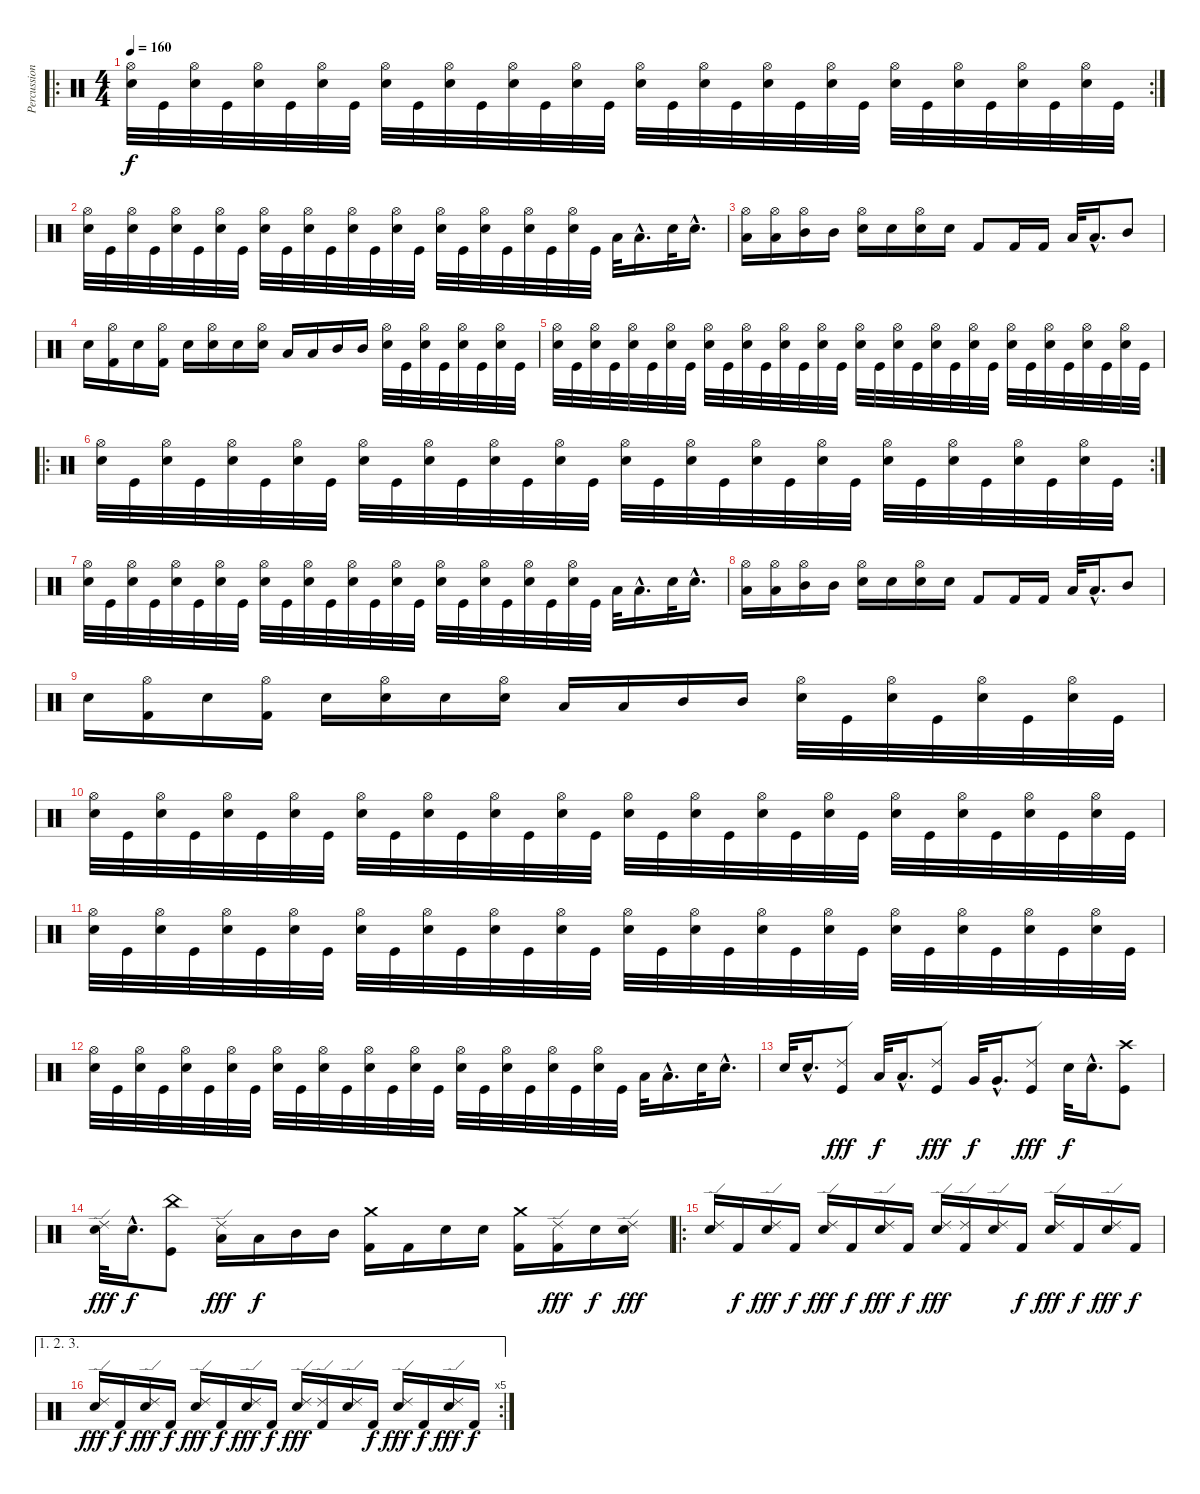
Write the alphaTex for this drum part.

\track ("Percussion" "Percussion") {instrument percussion}
\staff {score}
\articulation defaults
\ro
\rc 2
\ts (4 4)
\tempo 160
\clef neutral
\ks c
("Hi-Hat (open)" "Electric Snare (hit)").32{dy f} "Kick (hit)".32 ("Hi-Hat (open)" "Electric Snare (hit)").32 "Kick (hit)".32 ("Hi-Hat (open)" "Electric Snare (hit)").32 "Kick (hit)".32 ("Hi-Hat (open)" "Electric Snare (hit)").32 "Kick (hit)".32 ("Hi-Hat (open)" "Electric Snare (hit)").32 "Kick (hit)".32 ("Hi-Hat (open)" "Electric Snare (hit)").32 "Kick (hit)".32 ("Hi-Hat (open)" "Electric Snare (hit)").32 "Kick (hit)".32 ("Hi-Hat (open)" "Electric Snare (hit)").32 "Kick (hit)".32 ("Hi-Hat (open)" "Electric Snare (hit)").32 "Kick (hit)".32 ("Hi-Hat (open)" "Electric Snare (hit)").32 "Kick (hit)".32 ("Hi-Hat (open)" "Electric Snare (hit)").32 "Kick (hit)".32 ("Hi-Hat (open)" "Electric Snare (hit)").32 "Kick (hit)".32 ("Hi-Hat (open)" "Electric Snare (hit)").32 "Kick (hit)".32 ("Hi-Hat (open)" "Electric Snare (hit)").32 "Kick (hit)".32 ("Hi-Hat (open)" "Electric Snare (hit)").32 "Kick (hit)".32 ("Hi-Hat (open)" "Electric Snare (hit)").32 "Kick (hit)".32 |
("Hi-Hat (open)" "Electric Snare (hit)").32 "Kick (hit)".32 ("Hi-Hat (open)" "Electric Snare (hit)").32 "Kick (hit)".32 ("Hi-Hat (open)" "Electric Snare (hit)").32 "Kick (hit)".32 ("Hi-Hat (open)" "Electric Snare (hit)").32 "Kick (hit)".32 ("Hi-Hat (open)" "Electric Snare (hit)").32 "Kick (hit)".32 ("Hi-Hat (open)" "Electric Snare (hit)").32 "Kick (hit)".32 ("Hi-Hat (open)" "Electric Snare (hit)").32 "Kick (hit)".32 ("Hi-Hat (open)" "Electric Snare (hit)").32 "Kick (hit)".32 ("Hi-Hat (open)" "Electric Snare (hit)").32 "Kick (hit)".32 ("Hi-Hat (open)" "Electric Snare (hit)").32 "Kick (hit)".32 ("Hi-Hat (open)" "Electric Snare (hit)").32 "Kick (hit)".32 ("Hi-Hat (open)" "Electric Snare (hit)").32 "Kick (hit)".32 "Low Tom (hit)".32 "Low Tom (hit)"{hac}.16{d} "Electric Snare (hit)".32 "Electric Snare (hit)"{hac}.16{d} |
("Hi-Hat (open)" "Low Tom (hit)").16 ("Hi-Hat (open)" "Low Tom (hit)").16 ("Hi-Hat (open)" "Mid Tom (hit)").16 "Mid Tom (hit)".16 ("Hi-Hat (open)" "Electric Snare (hit)").16 "Electric Snare (hit)".16 ("Hi-Hat (open)" "Electric Snare (hit)").16 "Electric Snare (hit)".16 "Kick (hit) 2".8 "Kick (hit) 2".16 "Kick (hit) 2".16 "Low Tom (hit)".32 "Low Tom (hit)"{hac}.16{d} "Mid Tom (hit)".8 |
"Electric Snare (hit)".16 ("Hi-Hat (open)" "Kick (hit) 2").16 "Electric Snare (hit)".16 ("Hi-Hat (open)" "Kick (hit) 2").16 "Electric Snare (hit)".16 ("Hi-Hat (open)" "Electric Snare (hit)").16 "Electric Snare (hit)".16 ("Hi-Hat (open)" "Electric Snare (hit)").16 "Low Tom (hit)".16 "Low Tom (hit)".16 "Mid Tom (hit)".16 "Mid Tom (hit)".16 ("Hi-Hat (open)" "Electric Snare (hit)").32 "Kick (hit)".32 ("Hi-Hat (open)" "Electric Snare (hit)").32 "Kick (hit)".32 ("Hi-Hat (open)" "Electric Snare (hit)").32 "Kick (hit)".32 ("Hi-Hat (open)" "Electric Snare (hit)").32 "Kick (hit)".32 |
("Hi-Hat (open)" "Electric Snare (hit)").32 "Kick (hit)".32 ("Hi-Hat (open)" "Electric Snare (hit)").32 "Kick (hit)".32 ("Hi-Hat (open)" "Electric Snare (hit)").32 "Kick (hit)".32 ("Hi-Hat (open)" "Electric Snare (hit)").32 "Kick (hit)".32 ("Hi-Hat (open)" "Electric Snare (hit)").32 "Kick (hit)".32 ("Hi-Hat (open)" "Electric Snare (hit)").32 "Kick (hit)".32 ("Hi-Hat (open)" "Electric Snare (hit)").32 "Kick (hit)".32 ("Hi-Hat (open)" "Electric Snare (hit)").32 "Kick (hit)".32 ("Hi-Hat (open)" "Electric Snare (hit)").32 "Kick (hit)".32 ("Hi-Hat (open)" "Electric Snare (hit)").32 "Kick (hit)".32 ("Hi-Hat (open)" "Electric Snare (hit)").32 "Kick (hit)".32 ("Hi-Hat (open)" "Electric Snare (hit)").32 "Kick (hit)".32 ("Hi-Hat (open)" "Electric Snare (hit)").32 "Kick (hit)".32 ("Hi-Hat (open)" "Electric Snare (hit)").32 "Kick (hit)".32 ("Hi-Hat (open)" "Electric Snare (hit)").32 "Kick (hit)".32 ("Hi-Hat (open)" "Electric Snare (hit)").32 "Kick (hit)".32 |
\ro
\rc 2
("Hi-Hat (open)" "Electric Snare (hit)").32 "Kick (hit)".32 ("Hi-Hat (open)" "Electric Snare (hit)").32 "Kick (hit)".32 ("Hi-Hat (open)" "Electric Snare (hit)").32 "Kick (hit)".32 ("Hi-Hat (open)" "Electric Snare (hit)").32 "Kick (hit)".32 ("Hi-Hat (open)" "Electric Snare (hit)").32 "Kick (hit)".32 ("Hi-Hat (open)" "Electric Snare (hit)").32 "Kick (hit)".32 ("Hi-Hat (open)" "Electric Snare (hit)").32 "Kick (hit)".32 ("Hi-Hat (open)" "Electric Snare (hit)").32 "Kick (hit)".32 ("Hi-Hat (open)" "Electric Snare (hit)").32 "Kick (hit)".32 ("Hi-Hat (open)" "Electric Snare (hit)").32 "Kick (hit)".32 ("Hi-Hat (open)" "Electric Snare (hit)").32 "Kick (hit)".32 ("Hi-Hat (open)" "Electric Snare (hit)").32 "Kick (hit)".32 ("Hi-Hat (open)" "Electric Snare (hit)").32 "Kick (hit)".32 ("Hi-Hat (open)" "Electric Snare (hit)").32 "Kick (hit)".32 ("Hi-Hat (open)" "Electric Snare (hit)").32 "Kick (hit)".32 ("Hi-Hat (open)" "Electric Snare (hit)").32 "Kick (hit)".32 |
("Hi-Hat (open)" "Electric Snare (hit)").32 "Kick (hit)".32 ("Hi-Hat (open)" "Electric Snare (hit)").32 "Kick (hit)".32 ("Hi-Hat (open)" "Electric Snare (hit)").32 "Kick (hit)".32 ("Hi-Hat (open)" "Electric Snare (hit)").32 "Kick (hit)".32 ("Hi-Hat (open)" "Electric Snare (hit)").32 "Kick (hit)".32 ("Hi-Hat (open)" "Electric Snare (hit)").32 "Kick (hit)".32 ("Hi-Hat (open)" "Electric Snare (hit)").32 "Kick (hit)".32 ("Hi-Hat (open)" "Electric Snare (hit)").32 "Kick (hit)".32 ("Hi-Hat (open)" "Electric Snare (hit)").32 "Kick (hit)".32 ("Hi-Hat (open)" "Electric Snare (hit)").32 "Kick (hit)".32 ("Hi-Hat (open)" "Electric Snare (hit)").32 "Kick (hit)".32 ("Hi-Hat (open)" "Electric Snare (hit)").32 "Kick (hit)".32 "Low Tom (hit)".32 "Low Tom (hit)"{hac}.16{d} "Electric Snare (hit)".32 "Electric Snare (hit)"{hac}.16{d} |
("Hi-Hat (open)" "Low Tom (hit)").16 ("Hi-Hat (open)" "Low Tom (hit)").16 ("Hi-Hat (open)" "Mid Tom (hit)").16 "Mid Tom (hit)".16 ("Hi-Hat (open)" "Electric Snare (hit)").16 "Electric Snare (hit)".16 ("Hi-Hat (open)" "Electric Snare (hit)").16 "Electric Snare (hit)".16 "Kick (hit) 2".8 "Kick (hit) 2".16 "Kick (hit) 2".16 "Low Tom (hit)".32 "Low Tom (hit)"{hac}.16{d} "Mid Tom (hit)".8 |
"Electric Snare (hit)".16 ("Hi-Hat (open)" "Kick (hit) 2").16 "Electric Snare (hit)".16 ("Hi-Hat (open)" "Kick (hit) 2").16 "Electric Snare (hit)".16 ("Hi-Hat (open)" "Electric Snare (hit)").16 "Electric Snare (hit)".16 ("Hi-Hat (open)" "Electric Snare (hit)").16 "Low Tom (hit)".16 "Low Tom (hit)".16 "Mid Tom (hit)".16 "Mid Tom (hit)".16 ("Hi-Hat (open)" "Electric Snare (hit)").32 "Kick (hit)".32 ("Hi-Hat (open)" "Electric Snare (hit)").32 "Kick (hit)".32 ("Hi-Hat (open)" "Electric Snare (hit)").32 "Kick (hit)".32 ("Hi-Hat (open)" "Electric Snare (hit)").32 "Kick (hit)".32 |
("Hi-Hat (open)" "Electric Snare (hit)").32 "Kick (hit)".32 ("Hi-Hat (open)" "Electric Snare (hit)").32 "Kick (hit)".32 ("Hi-Hat (open)" "Electric Snare (hit)").32 "Kick (hit)".32 ("Hi-Hat (open)" "Electric Snare (hit)").32 "Kick (hit)".32 ("Hi-Hat (open)" "Electric Snare (hit)").32 "Kick (hit)".32 ("Hi-Hat (open)" "Electric Snare (hit)").32 "Kick (hit)".32 ("Hi-Hat (open)" "Electric Snare (hit)").32 "Kick (hit)".32 ("Hi-Hat (open)" "Electric Snare (hit)").32 "Kick (hit)".32 ("Hi-Hat (open)" "Electric Snare (hit)").32 "Kick (hit)".32 ("Hi-Hat (open)" "Electric Snare (hit)").32 "Kick (hit)".32 ("Hi-Hat (open)" "Electric Snare (hit)").32 "Kick (hit)".32 ("Hi-Hat (open)" "Electric Snare (hit)").32 "Kick (hit)".32 ("Hi-Hat (open)" "Electric Snare (hit)").32 "Kick (hit)".32 ("Hi-Hat (open)" "Electric Snare (hit)").32 "Kick (hit)".32 ("Hi-Hat (open)" "Electric Snare (hit)").32 "Kick (hit)".32 ("Hi-Hat (open)" "Electric Snare (hit)").32 "Kick (hit)".32 |
("Hi-Hat (open)" "Electric Snare (hit)").32 "Kick (hit)".32 ("Hi-Hat (open)" "Electric Snare (hit)").32 "Kick (hit)".32 ("Hi-Hat (open)" "Electric Snare (hit)").32 "Kick (hit)".32 ("Hi-Hat (open)" "Electric Snare (hit)").32 "Kick (hit)".32 ("Hi-Hat (open)" "Electric Snare (hit)").32 "Kick (hit)".32 ("Hi-Hat (open)" "Electric Snare (hit)").32 "Kick (hit)".32 ("Hi-Hat (open)" "Electric Snare (hit)").32 "Kick (hit)".32 ("Hi-Hat (open)" "Electric Snare (hit)").32 "Kick (hit)".32 ("Hi-Hat (open)" "Electric Snare (hit)").32 "Kick (hit)".32 ("Hi-Hat (open)" "Electric Snare (hit)").32 "Kick (hit)".32 ("Hi-Hat (open)" "Electric Snare (hit)").32 "Kick (hit)".32 ("Hi-Hat (open)" "Electric Snare (hit)").32 "Kick (hit)".32 ("Hi-Hat (open)" "Electric Snare (hit)").32 "Kick (hit)".32 ("Hi-Hat (open)" "Electric Snare (hit)").32 "Kick (hit)".32 ("Hi-Hat (open)" "Electric Snare (hit)").32 "Kick (hit)".32 ("Hi-Hat (open)" "Electric Snare (hit)").32 "Kick (hit)".32 |
("Hi-Hat (open)" "Electric Snare (hit)").32 "Kick (hit)".32 ("Hi-Hat (open)" "Electric Snare (hit)").32 "Kick (hit)".32 ("Hi-Hat (open)" "Electric Snare (hit)").32 "Kick (hit)".32 ("Hi-Hat (open)" "Electric Snare (hit)").32 "Kick (hit)".32 ("Hi-Hat (open)" "Electric Snare (hit)").32 "Kick (hit)".32 ("Hi-Hat (open)" "Electric Snare (hit)").32 "Kick (hit)".32 ("Hi-Hat (open)" "Electric Snare (hit)").32 "Kick (hit)".32 ("Hi-Hat (open)" "Electric Snare (hit)").32 "Kick (hit)".32 ("Hi-Hat (open)" "Electric Snare (hit)").32 "Kick (hit)".32 ("Hi-Hat (open)" "Electric Snare (hit)").32 "Kick (hit)".32 ("Hi-Hat (open)" "Electric Snare (hit)").32 "Kick (hit)".32 ("Hi-Hat (open)" "Electric Snare (hit)").32 "Kick (hit)".32 "Low Tom (hit)".32 "Low Tom (hit)"{hac}.16{d} "Electric Snare (hit)".32 "Electric Snare (hit)"{hac}.16{d} |
"Electric Snare (hit)".32 "Electric Snare (hit)"{hac}.16{d} ("Ride (edge) 2" "Kick (hit)").8{dy fff} "Low Tom (hit)".32{dy f} "Low Tom (hit)"{hac}.16{d} ("Ride (edge) 2" "Kick (hit)").8{dy fff} "Very Low Tom (hit)".32{dy f} "Very Low Tom (hit)"{hac}.16{d} ("Ride (edge) 2" "Kick (hit)").8{dy fff} "Electric Snare (hit)".32{dy f} "Electric Snare (hit)"{hac}.16{d} ("Crash high (hit)" "Kick (hit)").8 |
("Ride (edge) 2" "Electric Snare (hit)").32{dy fff} "Electric Snare (hit)"{hac}.16{d dy f} ("China (hit)" "Kick (hit)").8 ("Ride (edge) 2" "Low Tom (hit)").16{dy fff} "Low Tom (hit)".16{dy f} "Mid Tom (hit)".16 "Mid Tom (hit)".16 ("Crash medium (hit)" "Kick (hit) 2").16 "Kick (hit) 2".16 "Electric Snare (hit)".16 "Electric Snare (hit)".16 ("Crash medium (hit)" "Kick (hit) 2").16 ("Ride (edge) 2" "Kick (hit) 2").16{dy fff} "Electric Snare (hit)".16{dy f} ("Ride (edge) 2" "Electric Snare (hit)").16{dy fff} |
\ro
("Ride (edge) 2" "Electric Snare (hit)").16 "Kick (hit) 2".16{dy f} ("Ride (edge) 2" "Electric Snare (hit)").16{dy fff} "Kick (hit) 2".16{dy f} ("Ride (edge) 2" "Electric Snare (hit)").16{dy fff} "Kick (hit) 2".16{dy f} ("Ride (edge) 2" "Electric Snare (hit)").16{dy fff} "Kick (hit) 2".16{dy f} ("Ride (edge) 2" "Electric Snare (hit)").16{dy fff} ("Ride (edge) 2" "Kick (hit) 2").16 ("Ride (edge) 2" "Electric Snare (hit)").16 "Kick (hit) 2".16{dy f} ("Ride (edge) 2" "Electric Snare (hit)").16{dy fff} "Kick (hit) 2".16{dy f} ("Ride (edge) 2" "Electric Snare (hit)").16{dy fff} "Kick (hit) 2".16{dy f} |
\ae (1 2 3)
\rc 5
("Ride (edge) 2" "Electric Snare (hit)").16{dy fff} "Kick (hit) 2".16{dy f} ("Ride (edge) 2" "Electric Snare (hit)").16{dy fff} "Kick (hit) 2".16{dy f} ("Ride (edge) 2" "Electric Snare (hit)").16{dy fff} "Kick (hit) 2".16{dy f} ("Ride (edge) 2" "Electric Snare (hit)").16{dy fff} "Kick (hit) 2".16{dy f} ("Ride (edge) 2" "Electric Snare (hit)").16{dy fff} ("Ride (edge) 2" "Kick (hit) 2").16 ("Ride (edge) 2" "Electric Snare (hit)").16 "Kick (hit) 2".16{dy f} ("Ride (edge) 2" "Electric Snare (hit)").16{dy fff} "Kick (hit) 2".16{dy f} ("Ride (edge) 2" "Electric Snare (hit)").16{dy fff} "Kick (hit) 2".16{dy f}
